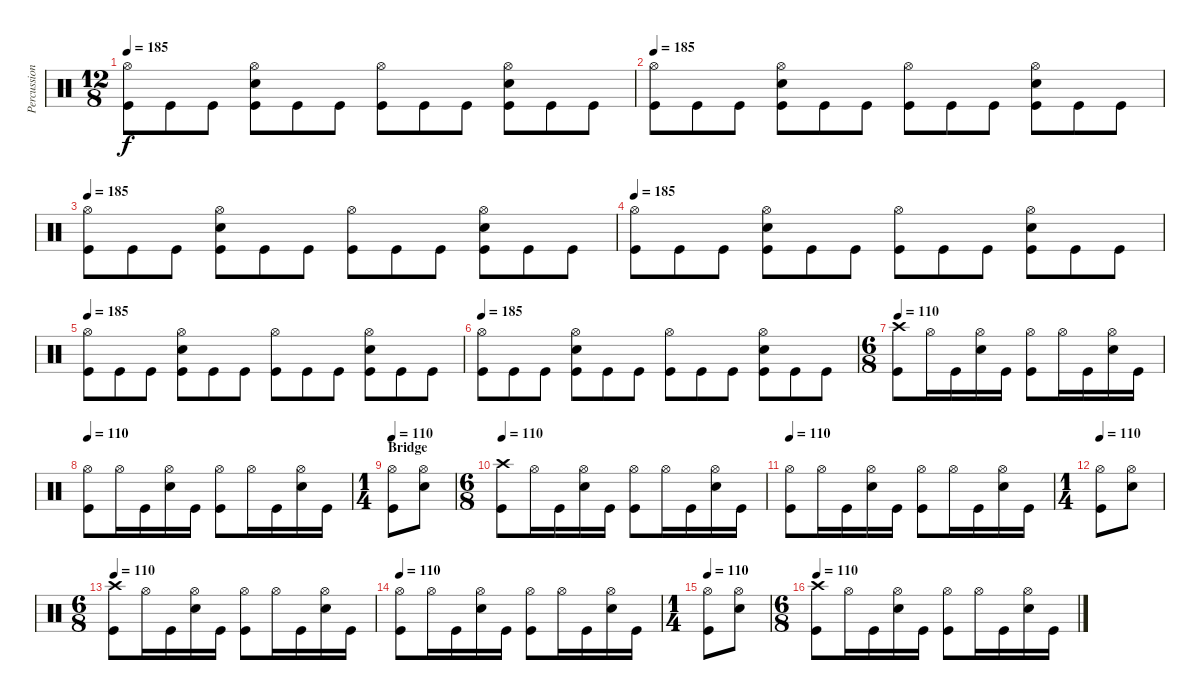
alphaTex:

\track ("Percussion" "Percussion") {instrument percussion}
\staff {score}
\articulation defaults
\ts (12 8)
\tempo 185
\clef neutral
\ks c
("Hi-Hat (open)" "Kick (hit)").8{dy f} "Kick (hit)".8 "Kick (hit)".8 ("Hi-Hat (open)" "Snare (hit) 2" "Kick (hit)").8 "Kick (hit)".8 "Kick (hit)".8 ("Hi-Hat (open)" "Kick (hit)").8 "Kick (hit)".8 "Kick (hit)".8 ("Hi-Hat (open)" "Snare (hit) 2" "Kick (hit)").8 "Kick (hit)".8 "Kick (hit)".8 |
\tempo 185
("Hi-Hat (open)" "Kick (hit)").8 "Kick (hit)".8 "Kick (hit)".8 ("Hi-Hat (open)" "Snare (hit) 2" "Kick (hit)").8 "Kick (hit)".8 "Kick (hit)".8 ("Hi-Hat (open)" "Kick (hit)").8 "Kick (hit)".8 "Kick (hit)".8 ("Hi-Hat (open)" "Snare (hit) 2" "Kick (hit)").8 "Kick (hit)".8 "Kick (hit)".8 |
\tempo 185
("Hi-Hat (open)" "Kick (hit)").8 "Kick (hit)".8 "Kick (hit)".8 ("Hi-Hat (open)" "Snare (hit) 2" "Kick (hit)").8 "Kick (hit)".8 "Kick (hit)".8 ("Hi-Hat (open)" "Kick (hit)").8 "Kick (hit)".8 "Kick (hit)".8 ("Hi-Hat (open)" "Snare (hit) 2" "Kick (hit)").8 "Kick (hit)".8 "Kick (hit)".8 |
\tempo 185
("Hi-Hat (open)" "Kick (hit)").8 "Kick (hit)".8 "Kick (hit)".8 ("Hi-Hat (open)" "Snare (hit) 2" "Kick (hit)").8 "Kick (hit)".8 "Kick (hit)".8 ("Hi-Hat (open)" "Kick (hit)").8 "Kick (hit)".8 "Kick (hit)".8 ("Hi-Hat (open)" "Snare (hit) 2" "Kick (hit)").8 "Kick (hit)".8 "Kick (hit)".8 |
\tempo 185
("Hi-Hat (open)" "Kick (hit)").8 "Kick (hit)".8 "Kick (hit)".8 ("Hi-Hat (open)" "Snare (hit) 2" "Kick (hit)").8 "Kick (hit)".8 "Kick (hit)".8 ("Hi-Hat (open)" "Kick (hit)").8 "Kick (hit)".8 "Kick (hit)".8 ("Hi-Hat (open)" "Snare (hit) 2" "Kick (hit)").8 "Kick (hit)".8 "Kick (hit)".8 |
\tempo 185
("Hi-Hat (open)" "Kick (hit)").8 "Kick (hit)".8 "Kick (hit)".8 ("Hi-Hat (open)" "Snare (hit) 2" "Kick (hit)").8 "Kick (hit)".8 "Kick (hit)".8 ("Hi-Hat (open)" "Kick (hit)").8 "Kick (hit)".8 "Kick (hit)".8 ("Hi-Hat (open)" "Snare (hit) 2" "Kick (hit)").8 "Kick (hit)".8 "Kick (hit)".8 |
\ts (6 8)
\tempo 110
("Crash high (hit)" "Kick (hit)").8 "Hi-Hat (open)".16 "Kick (hit)".16 ("Hi-Hat (open)" "Snare (hit) 2").16 "Kick (hit)".16 ("Hi-Hat (open)" "Kick (hit)").8 "Hi-Hat (open)".16 "Kick (hit)".16 ("Hi-Hat (open)" "Snare (hit) 2").16 "Kick (hit)".16 |
\tempo 110
("Hi-Hat (open)" "Kick (hit)").8 "Hi-Hat (open)".16 "Kick (hit)".16 ("Hi-Hat (open)" "Snare (hit) 2").16 "Kick (hit)".16 ("Hi-Hat (open)" "Kick (hit)").8 "Hi-Hat (open)".16 "Kick (hit)".16 ("Hi-Hat (open)" "Snare (hit) 2").16 "Kick (hit)".16 |
\ts (1 4)
\section ("" "Bridge")
\tempo 110
("Hi-Hat (open)" "Kick (hit)").8 ("Hi-Hat (open)" "Snare (hit) 2").8 |
\ts (6 8)
\tempo 110
("Crash high (hit)" "Kick (hit)").8 "Hi-Hat (open)".16 "Kick (hit)".16 ("Hi-Hat (open)" "Snare (hit) 2").16 "Kick (hit)".16 ("Hi-Hat (open)" "Kick (hit)").8 "Hi-Hat (open)".16 "Kick (hit)".16 ("Hi-Hat (open)" "Snare (hit) 2").16 "Kick (hit)".16 |
\tempo 110
("Hi-Hat (open)" "Kick (hit)").8 "Hi-Hat (open)".16 "Kick (hit)".16 ("Hi-Hat (open)" "Snare (hit) 2").16 "Kick (hit)".16 ("Hi-Hat (open)" "Kick (hit)").8 "Hi-Hat (open)".16 "Kick (hit)".16 ("Hi-Hat (open)" "Snare (hit) 2").16 "Kick (hit)".16 |
\ts (1 4)
\tempo 110
("Hi-Hat (open)" "Kick (hit)").8 ("Hi-Hat (open)" "Snare (hit) 2").8 |
\ts (6 8)
\tempo 110
("Crash high (hit)" "Kick (hit)").8 "Hi-Hat (open)".16 "Kick (hit)".16 ("Hi-Hat (open)" "Snare (hit) 2").16 "Kick (hit)".16 ("Hi-Hat (open)" "Kick (hit)").8 "Hi-Hat (open)".16 "Kick (hit)".16 ("Hi-Hat (open)" "Snare (hit) 2").16 "Kick (hit)".16 |
\tempo 110
("Hi-Hat (open)" "Kick (hit)").8 "Hi-Hat (open)".16 "Kick (hit)".16 ("Hi-Hat (open)" "Snare (hit) 2").16 "Kick (hit)".16 ("Hi-Hat (open)" "Kick (hit)").8 "Hi-Hat (open)".16 "Kick (hit)".16 ("Hi-Hat (open)" "Snare (hit) 2").16 "Kick (hit)".16 |
\ts (1 4)
\tempo 110
("Hi-Hat (open)" "Kick (hit)").8 ("Hi-Hat (open)" "Snare (hit) 2").8 |
\ts (6 8)
\tempo 110
("Crash high (hit)" "Kick (hit)").8 "Hi-Hat (open)".16 "Kick (hit)".16 ("Hi-Hat (open)" "Snare (hit) 2").16 "Kick (hit)".16 ("Hi-Hat (open)" "Kick (hit)").8 "Hi-Hat (open)".16 "Kick (hit)".16 ("Hi-Hat (open)" "Snare (hit) 2").16 "Kick (hit)".16
